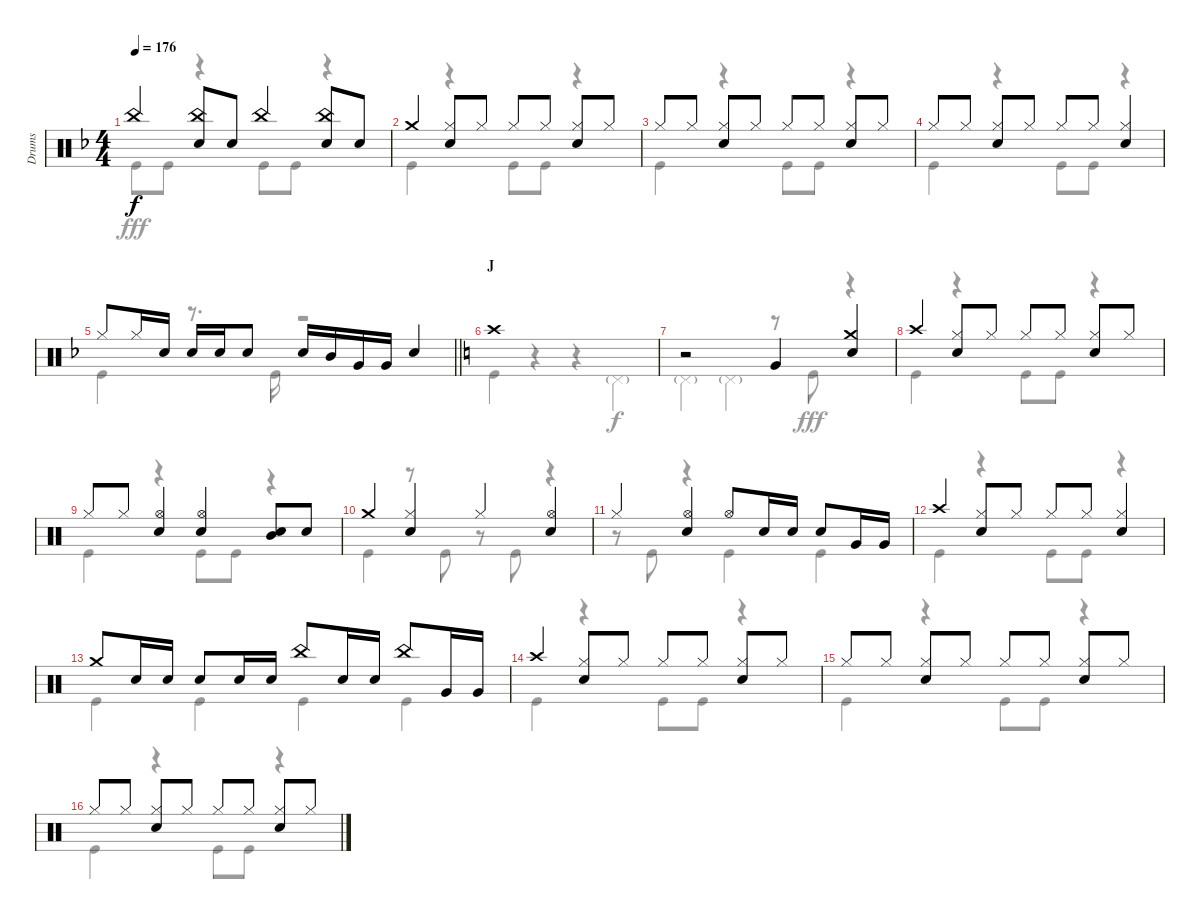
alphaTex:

\track ("Drums" "Drums") {instrument percussion}
\staff {score}
\articulation defaults
\voice
\ts (4 4)
\tempo 176
\clef neutral
\ks f "China (hit)".4{dy f}
("China (hit)" "Snare (hit) 2").8 "Snare (hit) 2".8 "China (hit)".4 ("China (hit)" "Snare (hit) 2").8 "Snare (hit) 2".8 |
"Crash medium (hit)".4 ("Hi-Hat (closed)" "Snare (hit) 2").8 "Hi-Hat (closed)".8 "Hi-Hat (closed)".8 "Hi-Hat (closed)".8 ("Hi-Hat (closed)" "Snare (hit) 2").8 "Hi-Hat (closed)".8 |
"Hi-Hat (closed)".8 "Hi-Hat (closed)".8 ("Hi-Hat (closed)" "Snare (hit) 2").8 "Hi-Hat (closed)".8 "Hi-Hat (closed)".8 "Hi-Hat (closed)".8 ("Hi-Hat (closed)" "Snare (hit) 2").8 "Hi-Hat (closed)".8 |
"Hi-Hat (closed)".8 "Hi-Hat (closed)".8 ("Hi-Hat (closed)" "Snare (hit) 2").8 "Hi-Hat (closed)".8 "Hi-Hat (closed)".8 "Hi-Hat (closed)".8 ("Hi-Hat (closed)" "Snare (hit) 2").4 |
\barLineRight lightlight "Hi-Hat (closed)".8 "Hi-Hat (closed)".16 "Snare (hit) 2".16 "Snare (hit) 2".16 "Snare (hit) 2".16 "Snare (hit) 2".8 "Snare (hit) 2".16 "Mid Tom (hit)".16 "Very Low Tom (hit)".16 "Very Low Tom (hit)".16 "Snare (hit) 2".4
|
\section ("" "J")
\ks c "Crash high (hit)".1
|
r.2 "Very Low Tom (hit)".4 ("Crash medium (hit)" "Snare (hit) 2").4 |
"Crash high (hit)".4 ("Hi-Hat (closed)" "Snare (hit) 2").8 "Hi-Hat (closed)".8 "Hi-Hat (closed)".8 "Hi-Hat (closed)".8 ("Hi-Hat (closed)" "Snare (hit) 2").8 "Hi-Hat (closed)".8 |
"Hi-Hat (closed)".8 "Hi-Hat (closed)".8 ("Hi-Hat (open)" "Snare (hit) 2").4 ("Hi-Hat (open)" "Snare (hit) 2").4 ("Mid Tom (hit)" "Snare (hit) 2").8 "Snare (hit) 2".8 |
"Crash medium (hit)".4 ("Hi-Hat (closed)" "Snare (hit) 2").4 "Hi-Hat (closed)".4 ("Hi-Hat (open)" "Snare (hit) 2").4 |
"Hi-Hat (closed)".4 ("Hi-Hat (open)" "Snare (hit) 2").4 "Hi-Hat (open)".8 "Snare (hit) 2".16 "Snare (hit) 2".16 "Snare (hit) 2".8 "Very Low Tom (hit)".16 "Very Low Tom (hit)".16 |
"Crash high (hit)".4 ("Hi-Hat (closed)" "Snare (hit) 2").8 "Hi-Hat (closed)".8 "Hi-Hat (closed)".8 "Hi-Hat (closed)".8 ("Hi-Hat (closed)" "Snare (hit) 2").4 |
"Crash medium (hit)".8 "Snare (hit) 2".16 "Snare (hit) 2".16 "Snare (hit) 2".8 "Snare (hit) 2".16 "Snare (hit) 2".16 "China (hit)".8 "Snare (hit) 2".16 "Snare (hit) 2".16 "China (hit)".8 "Very Low Tom (hit)".16 "Very Low Tom (hit)".16 |
"Crash high (hit)".4 ("Hi-Hat (closed)" "Snare (hit) 2").8 "Hi-Hat (closed)".8 "Hi-Hat (closed)".8 "Hi-Hat (closed)".8 ("Hi-Hat (closed)" "Snare (hit) 2").8 "Hi-Hat (closed)".8 |
"Hi-Hat (closed)".8 "Hi-Hat (closed)".8 ("Hi-Hat (closed)" "Snare (hit) 2").8 "Hi-Hat (closed)".8 "Hi-Hat (closed)".8 "Hi-Hat (closed)".8 ("Hi-Hat (closed)" "Snare (hit) 2").8 "Hi-Hat (closed)".8 |
"Hi-Hat (closed)".8 "Hi-Hat (closed)".8 ("Hi-Hat (closed)" "Snare (hit) 2").8 "Hi-Hat (closed)".8 "Hi-Hat (closed)".8 "Hi-Hat (closed)".8 ("Hi-Hat (closed)" "Snare (hit) 2").8 "Hi-Hat (closed)".8
\voice
\clef neutral
\ottava regular
\simile none
\ks f "Kick (hit)".8{dy fff} "Kick (hit)".8
r.4 "Kick (hit)".8 "Kick (hit)".8 r.4 |
"Kick (hit)".4 r.4 "Kick (hit)".8 "Kick (hit)".8 r.4 |
"Kick (hit)".4 r.4 "Kick (hit)".8 "Kick (hit)".8 r.4 |
"Kick (hit)".4 r.4 "Kick (hit)".8 "Kick (hit)".8 r.4 |
\barLineRight lightlight "Kick (hit)".4
r.8{d} "Kick (hit)".16 r.2 |
\ks c "Kick (hit)".4
r.4 r.4 "Pedal Hi-Hat (hit)"{g}.4{dy f} |
"Pedal Hi-Hat (hit)"{g}.4 "Pedal Hi-Hat (hit)"{g}.4 r.8 "Kick (hit)".8{dy fff} r.4 |
"Kick (hit)".4 r.4 "Kick (hit)".8 "Kick (hit)".8 r.4 |
"Kick (hit)".4 r.4 "Kick (hit)".8 "Kick (hit)".8 r.4 |
"Kick (hit)".4 r.8 "Kick (hit)".8 r.8 "Kick (hit)".8 r.4 |
r.8 "Kick (hit)".8 r.4 "Kick (hit)".4 "Kick (hit)".4 |
"Kick (hit)".4 r.4 "Kick (hit)".8 "Kick (hit)".8 r.4 |
"Kick (hit)".4 "Kick (hit)".4 "Kick (hit)".4 "Kick (hit)".4 |
"Kick (hit)".4 r.4 "Kick (hit)".8 "Kick (hit)".8 r.4 |
"Kick (hit)".4 r.4 "Kick (hit)".8 "Kick (hit)".8 r.4 |
"Kick (hit)".4 r.4 "Kick (hit)".8 "Kick (hit)".8 r.4
